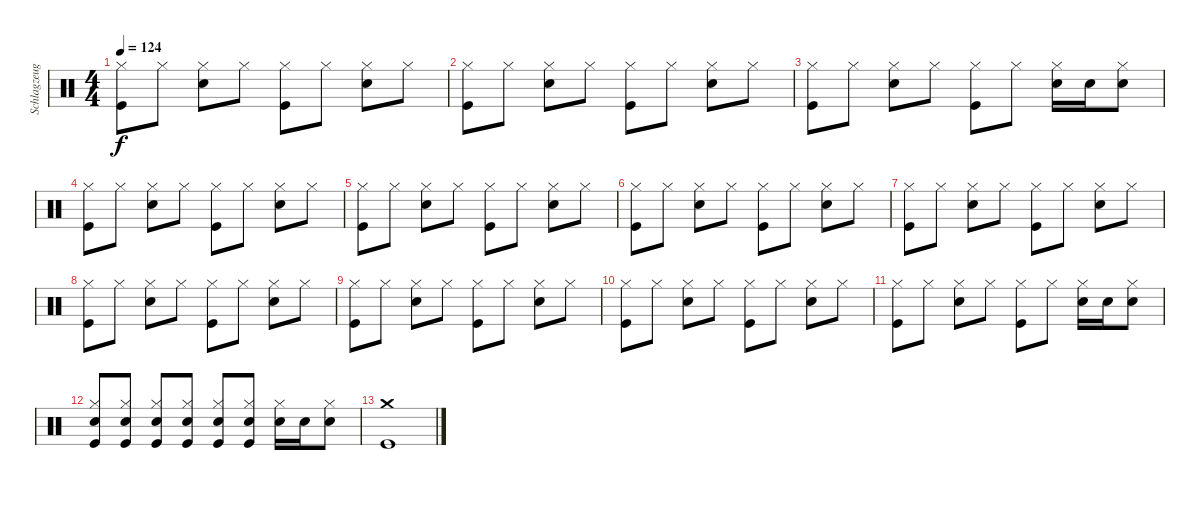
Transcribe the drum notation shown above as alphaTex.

\track ("Schlagzeug - Bela B." "Schlagzeug") {instrument percussion}
\staff {score}
\articulation defaults
\ts (4 4)
\tempo 124
\clef neutral
\ks c
("Kick (hit)" "Hi-Hat (closed)").8{dy f} "Hi-Hat (closed)".8 ("Snare (hit) 2" "Hi-Hat (closed)").8 "Hi-Hat (closed)".8 ("Kick (hit)" "Hi-Hat (closed)").8 "Hi-Hat (closed)".8 ("Snare (hit) 2" "Hi-Hat (closed)").8 "Hi-Hat (closed)".8 |
("Kick (hit)" "Hi-Hat (closed)").8 "Hi-Hat (closed)".8 ("Snare (hit) 2" "Hi-Hat (closed)").8 "Hi-Hat (closed)".8 ("Kick (hit)" "Hi-Hat (closed)").8 "Hi-Hat (closed)".8 ("Snare (hit) 2" "Hi-Hat (closed)").8 "Hi-Hat (closed)".8 |
("Kick (hit)" "Hi-Hat (closed)").8 "Hi-Hat (closed)".8 ("Snare (hit) 2" "Hi-Hat (closed)").8 "Hi-Hat (closed)".8 ("Kick (hit)" "Hi-Hat (closed)").8 "Hi-Hat (closed)".8 ("Snare (hit) 2" "Hi-Hat (closed)").16 "Snare (hit) 2".16 ("Hi-Hat (closed)" "Snare (hit) 2").8 |
("Kick (hit)" "Hi-Hat (closed)").8 "Hi-Hat (closed)".8 ("Snare (hit) 2" "Hi-Hat (closed)").8 "Hi-Hat (closed)".8 ("Kick (hit)" "Hi-Hat (closed)").8 "Hi-Hat (closed)".8 ("Snare (hit) 2" "Hi-Hat (closed)").8 "Hi-Hat (closed)".8 |
("Kick (hit)" "Hi-Hat (closed)").8 "Hi-Hat (closed)".8 ("Snare (hit) 2" "Hi-Hat (closed)").8 "Hi-Hat (closed)".8 ("Kick (hit)" "Hi-Hat (closed)").8 "Hi-Hat (closed)".8 ("Snare (hit) 2" "Hi-Hat (closed)").8 "Hi-Hat (closed)".8 |
("Kick (hit)" "Hi-Hat (closed)").8 "Hi-Hat (closed)".8 ("Snare (hit) 2" "Hi-Hat (closed)").8 "Hi-Hat (closed)".8 ("Kick (hit)" "Hi-Hat (closed)").8 "Hi-Hat (closed)".8 ("Snare (hit) 2" "Hi-Hat (closed)").8 "Hi-Hat (closed)".8 |
("Kick (hit)" "Hi-Hat (closed)").8 "Hi-Hat (closed)".8 ("Snare (hit) 2" "Hi-Hat (closed)").8 "Hi-Hat (closed)".8 ("Kick (hit)" "Hi-Hat (closed)").8 "Hi-Hat (closed)".8 ("Snare (hit) 2" "Hi-Hat (closed)").8 "Hi-Hat (closed)".8 |
("Kick (hit)" "Hi-Hat (closed)").8 "Hi-Hat (closed)".8 ("Snare (hit) 2" "Hi-Hat (closed)").8 "Hi-Hat (closed)".8 ("Kick (hit)" "Hi-Hat (closed)").8 "Hi-Hat (closed)".8 ("Snare (hit) 2" "Hi-Hat (closed)").8 "Hi-Hat (closed)".8 |
("Kick (hit)" "Hi-Hat (closed)").8 "Hi-Hat (closed)".8 ("Snare (hit) 2" "Hi-Hat (closed)").8 "Hi-Hat (closed)".8 ("Kick (hit)" "Hi-Hat (closed)").8 "Hi-Hat (closed)".8 ("Snare (hit) 2" "Hi-Hat (closed)").8 "Hi-Hat (closed)".8 |
("Kick (hit)" "Hi-Hat (closed)").8 "Hi-Hat (closed)".8 ("Snare (hit) 2" "Hi-Hat (closed)").8 "Hi-Hat (closed)".8 ("Kick (hit)" "Hi-Hat (closed)").8 "Hi-Hat (closed)".8 ("Snare (hit) 2" "Hi-Hat (closed)").8 "Hi-Hat (closed)".8 |
("Kick (hit)" "Hi-Hat (closed)").8 "Hi-Hat (closed)".8 ("Snare (hit) 2" "Hi-Hat (closed)").8 "Hi-Hat (closed)".8 ("Kick (hit)" "Hi-Hat (closed)").8 "Hi-Hat (closed)".8 ("Snare (hit) 2" "Hi-Hat (closed)").16 "Snare (hit) 2".16 ("Hi-Hat (closed)" "Snare (hit) 2").8 |
("Kick (hit)" "Hi-Hat (closed)" "Snare (hit) 2").8 ("Hi-Hat (closed)" "Kick (hit)" "Snare (hit) 2").8 ("Snare (hit) 2" "Hi-Hat (closed)" "Kick (hit)").8 ("Hi-Hat (closed)" "Kick (hit)" "Snare (hit) 2").8 ("Kick (hit)" "Hi-Hat (closed)" "Snare (hit) 2").8 ("Hi-Hat (closed)" "Kick (hit)" "Snare (hit) 2").8 ("Snare (hit) 2" "Hi-Hat (closed)").16 "Snare (hit) 2".16 ("Hi-Hat (closed)" "Snare (hit) 2").8 |
("Kick (hit)" "Crash medium (hit)").1
